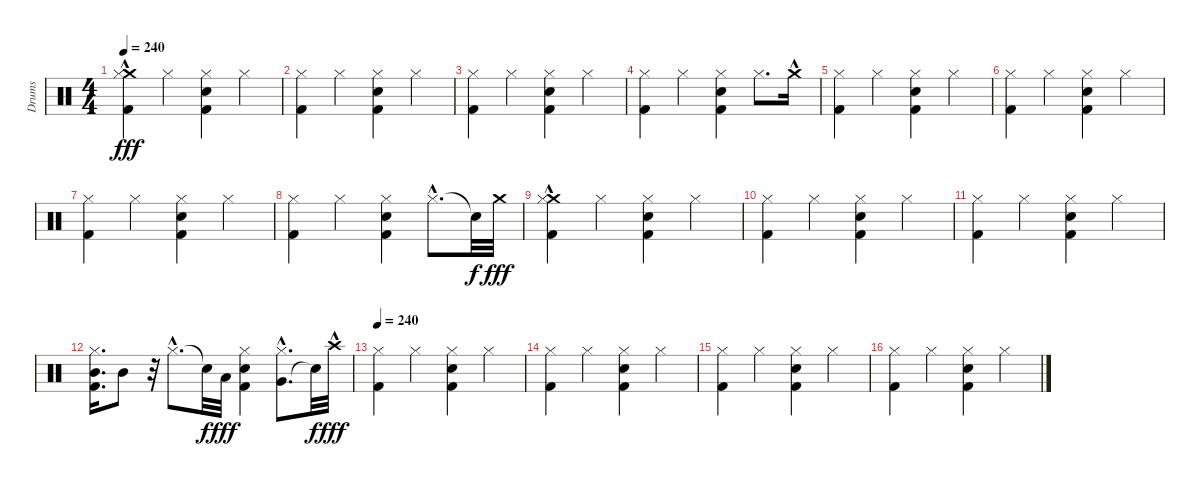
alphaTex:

\track ("Drums" "Drums") {instrument percussion}
\staff {score}
\articulation defaults
\ts (4 4)
\tempo 240
\clef neutral
\ks c
("Crash medium (hit)"{hac} "Hi-Hat (closed)" "Kick (hit) 2").4{dy fff} "Hi-Hat (closed)".4 ("Kick (hit) 2" "Snare (hit) 2" "Hi-Hat (closed)").4 "Hi-Hat (closed)".4 |
("Hi-Hat (closed)" "Kick (hit) 2").4 "Hi-Hat (closed)".4 ("Snare (hit) 2" "Kick (hit) 2" "Hi-Hat (closed)").4 "Hi-Hat (closed)".4 |
("Hi-Hat (closed)" "Kick (hit) 2").4 "Hi-Hat (closed)".4 ("Snare (hit) 2" "Hi-Hat (closed)" "Kick (hit) 2").4 "Hi-Hat (closed)".4 |
("Hi-Hat (closed)" "Kick (hit) 2").4 "Hi-Hat (closed)".4 ("Snare (hit) 2" "Kick (hit) 2" "Hi-Hat (closed)").4 "Hi-Hat (closed)".8{d} "Crash medium (hit)"{hac}.16 |
("Hi-Hat (closed)" "Kick (hit) 2").4 "Hi-Hat (closed)".4 ("Kick (hit) 2" "Snare (hit) 2" "Hi-Hat (closed)").4 "Hi-Hat (closed)".4 |
("Hi-Hat (closed)" "Kick (hit) 2").4 "Hi-Hat (closed)".4 ("Hi-Hat (closed)" "Snare (hit) 2" "Kick (hit) 2").4 "Hi-Hat (closed)".4 |
("Hi-Hat (closed)" "Kick (hit) 2").4 "Hi-Hat (closed)".4 ("Kick (hit) 2" "Hi-Hat (closed)" "Snare (hit) 2").4 "Hi-Hat (closed)".4 |
("Hi-Hat (closed)" "Kick (hit) 2").4 "Hi-Hat (closed)".4 ("Snare (hit) 2" "Kick (hit) 2" "Hi-Hat (closed)").4 "Hi-Hat (closed)"{hac}.8{d} "Snare (hit)"{t}.32{dy f} "Crash medium (hit)".32{dy fff} |
("Kick (hit) 2" "Crash medium (hit)"{hac} "Hi-Hat (closed)").4 "Hi-Hat (closed)".4 ("Kick (hit) 2" "Snare (hit) 2" "Hi-Hat (closed)").4 "Hi-Hat (closed)".4 |
("Kick (hit) 2" "Hi-Hat (closed)").4 "Hi-Hat (closed)".4 ("Snare (hit) 2" "Kick (hit) 2" "Hi-Hat (closed)").4 "Hi-Hat (closed)".4 |
("Kick (hit) 2" "Hi-Hat (closed)").4 "Hi-Hat (closed)".4 ("Snare (hit) 2" "Hi-Hat (closed)" "Kick (hit) 2").4 "Hi-Hat (closed)".4 |
("Mid Tom (hit)" "Kick (hit) 2" "Hi-Hat (closed)").16{d} "Mid Tom (hit)".8 r.32 "Hi-Hat (closed)"{hac}.8{d} "Snare (hit)"{t}.32{dy f} "Low Tom (hit)".32{dy fff} ("Snare (hit) 2" "Kick (hit) 2" "Hi-Hat (closed)").4 ("Very Low Tom (hit)" "Hi-Hat (closed)"{hac}).8{d} "Snare (hit)"{t}.32{dy f} "Crash high (hit)"{hac}.32{dy fff} |
\tempo 240
("Kick (hit) 2" "Hi-Hat (closed)").4 "Hi-Hat (closed)".4 ("Kick (hit) 2" "Snare (hit) 2" "Hi-Hat (closed)").4 "Hi-Hat (closed)".4 |
("Kick (hit) 2" "Hi-Hat (closed)").4 "Hi-Hat (closed)".4 ("Hi-Hat (closed)" "Snare (hit) 2" "Kick (hit) 2").4 "Hi-Hat (closed)".4 |
("Kick (hit) 2" "Hi-Hat (closed)").4 "Hi-Hat (closed)".4 ("Kick (hit) 2" "Hi-Hat (closed)" "Snare (hit) 2").4 "Hi-Hat (closed)".4 |
("Kick (hit) 2" "Hi-Hat (closed)").4 "Hi-Hat (closed)".4 ("Snare (hit) 2" "Kick (hit) 2" "Hi-Hat (closed)").4 "Hi-Hat (closed)".4
